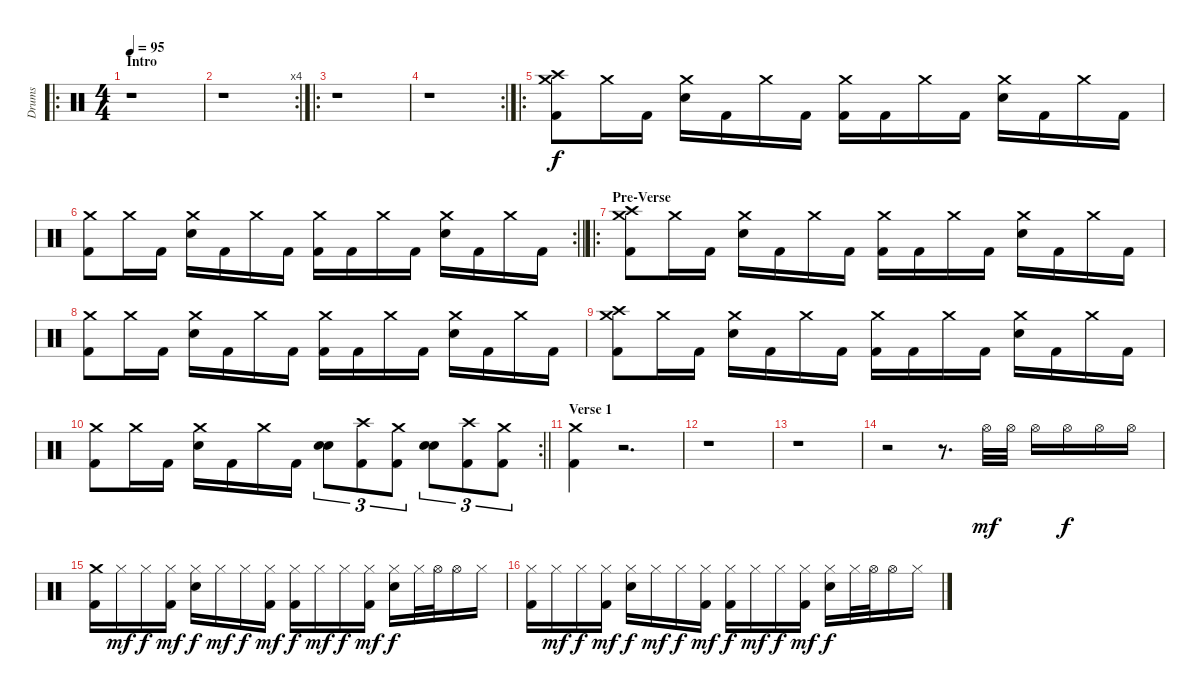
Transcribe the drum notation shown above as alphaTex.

\track ("Drums" "Drums") {instrument percussion}
\staff {score}
\articulation defaults
\ro
\ts (4 4)
\section ("" "Intro")
\tempo 95
\clef neutral
\ks c
r.1{dy f} |
\rc 4
r.1 |
\ro
r.1 |
\rc 2
r.1 |
\ro
("Crash high (hit)" "Crash medium (hit)" "Kick (hit) 2").8 "Crash medium (hit)".16 "Kick (hit) 2".16 ("Crash medium (hit)" "Electric Snare (hit)").16 "Kick (hit) 2".16 "Crash medium (hit)".16 "Kick (hit) 2".16 ("Crash medium (hit)" "Kick (hit) 2").16 "Kick (hit) 2".16 "Crash medium (hit)".16 "Kick (hit) 2".16 ("Electric Snare (hit)" "Crash medium (hit)").16 "Kick (hit) 2".16 "Crash medium (hit)".16 "Kick (hit) 2".16 |
\rc 2
\barLineRight lightlight
("Crash medium (hit)" "Kick (hit) 2").8 "Crash medium (hit)".16 "Kick (hit) 2".16 ("Crash medium (hit)" "Electric Snare (hit)").16 "Kick (hit) 2".16 "Crash medium (hit)".16 "Kick (hit) 2".16 ("Crash medium (hit)" "Kick (hit) 2").16 "Kick (hit) 2".16 "Crash medium (hit)".16 "Kick (hit) 2".16 ("Electric Snare (hit)" "Crash medium (hit)").16 "Kick (hit) 2".16 "Crash medium (hit)".16 "Kick (hit) 2".16 |
\ro
\section ("" "Pre-Verse")
("Crash high (hit)" "Crash medium (hit)" "Kick (hit) 2").8 "Crash medium (hit)".16 "Kick (hit) 2".16 ("Crash medium (hit)" "Electric Snare (hit)").16 "Kick (hit) 2".16 "Crash medium (hit)".16 "Kick (hit) 2".16 ("Crash medium (hit)" "Kick (hit) 2").16 "Kick (hit) 2".16 "Crash medium (hit)".16 "Kick (hit) 2".16 ("Electric Snare (hit)" "Crash medium (hit)").16 "Kick (hit) 2".16 "Crash medium (hit)".16 "Kick (hit) 2".16 |
("Crash medium (hit)" "Kick (hit) 2").8 "Crash medium (hit)".16 "Kick (hit) 2".16 ("Crash medium (hit)" "Electric Snare (hit)").16 "Kick (hit) 2".16 "Crash medium (hit)".16 "Kick (hit) 2".16 ("Crash medium (hit)" "Kick (hit) 2").16 "Kick (hit) 2".16 "Crash medium (hit)".16 "Kick (hit) 2".16 ("Electric Snare (hit)" "Crash medium (hit)").16 "Kick (hit) 2".16 "Crash medium (hit)".16 "Kick (hit) 2".16 |
("Crash high (hit)" "Crash medium (hit)" "Kick (hit) 2").8 "Crash medium (hit)".16 "Kick (hit) 2".16 ("Crash medium (hit)" "Electric Snare (hit)").16 "Kick (hit) 2".16 "Crash medium (hit)".16 "Kick (hit) 2".16 ("Crash medium (hit)" "Kick (hit) 2").16 "Kick (hit) 2".16 "Crash medium (hit)".16 "Kick (hit) 2".16 ("Electric Snare (hit)" "Crash medium (hit)").16 "Kick (hit) 2".16 "Crash medium (hit)".16 "Kick (hit) 2".16 |
\rc 2
\barLineRight lightlight
("Crash medium (hit)" "Kick (hit) 2").8 "Crash medium (hit)".16 "Kick (hit) 2".16 ("Crash medium (hit)" "Electric Snare (hit)").16 "Kick (hit) 2".16 "Crash medium (hit)".16 "Kick (hit) 2".16 ("Snare (hit) 2" "Electric Snare (hit)").8{tu (3 2)} ("Crash high (hit)" "Kick (hit) 2").8{tu (3 2)} ("Crash medium (hit)" "Kick (hit) 2").8{tu (3 2)} ("Snare (hit) 2" "Electric Snare (hit)").8{tu (3 2)} ("Crash high (hit)" "Kick (hit) 2").8{tu (3 2)} ("Crash medium (hit)" "Kick (hit) 2").8{tu (3 2)} |
\section ("" "Verse 1")
("Crash medium (hit)" "Kick (hit) 2").4 r.2{d} |
r.1 |
r.1 |
r.2 r.8{d} "Hi-Hat (open)".32{dy mf} "Hi-Hat (open)".32 "Hi-Hat (open)".16 "Hi-Hat (open)".16{dy f} "Hi-Hat (open)".16 "Hi-Hat (open)".16 |
("Crash medium (hit)" "Kick (hit) 2").16 "Hi-Hat (closed)".16{dy mf} "Hi-Hat (closed)".16{dy f} ("Kick (hit) 2" "Hi-Hat (closed)").16{dy mf} ("Electric Snare (hit)" "Hi-Hat (closed)").16{dy f} "Hi-Hat (closed)".16{dy mf} "Hi-Hat (closed)".16{dy f} ("Kick (hit) 2" "Hi-Hat (closed)").16{dy mf} ("Kick (hit) 2" "Hi-Hat (closed)").16{dy f} "Hi-Hat (closed)".16{dy mf} "Hi-Hat (closed)".16{dy f} ("Kick (hit) 2" "Hi-Hat (closed)").16{dy mf} ("Electric Snare (hit)" "Hi-Hat (closed)").16{dy f} "Hi-Hat (closed)".32 "Hi-Hat (open)".32 "Hi-Hat (open)".16 "Hi-Hat (closed)".16 |
("Hi-Hat (closed)" "Kick (hit) 2").16 "Hi-Hat (closed)".16{dy mf} "Hi-Hat (closed)".16{dy f} ("Kick (hit) 2" "Hi-Hat (closed)").16{dy mf} ("Electric Snare (hit)" "Hi-Hat (closed)").16{dy f} "Hi-Hat (closed)".16{dy mf} "Hi-Hat (closed)".16{dy f} ("Kick (hit) 2" "Hi-Hat (closed)").16{dy mf} ("Kick (hit) 2" "Hi-Hat (closed)").16{dy f} "Hi-Hat (closed)".16{dy mf} "Hi-Hat (closed)".16{dy f} ("Kick (hit) 2" "Hi-Hat (closed)").16{dy mf} ("Electric Snare (hit)" "Hi-Hat (closed)").16{dy f} "Hi-Hat (closed)".32 "Hi-Hat (open)".32 "Hi-Hat (open)".16 "Hi-Hat (closed)".16
